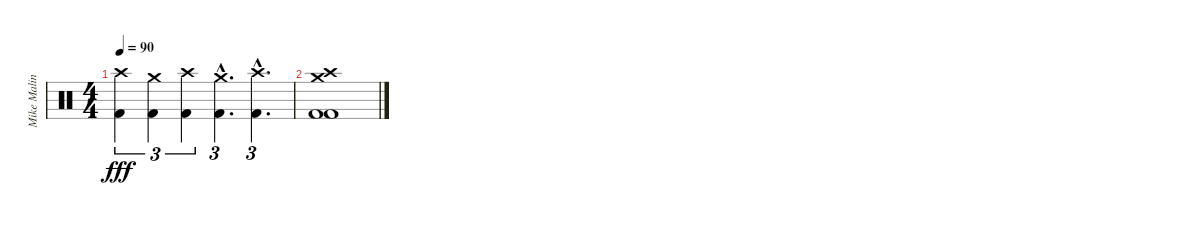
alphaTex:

\track ("Mike Malinin - Drums" "Mike Malin") {instrument percussion}
\staff {score}
\articulation defaults
\ts (4 4)
\tempo 90
\clef neutral
\ks c
("Crash high (hit)" "Kick (hit) 2").4{tu (3 2) dy fff} ("Crash medium (hit)" "Kick (hit) 2").4{tu (3 2)} ("Crash high (hit)" "Kick (hit) 2").4{tu (3 2)} ("Crash medium (hit)"{hac} "Kick (hit) 2"{hac}).4{d tu (3 2)} ("Crash high (hit)"{hac} "Kick (hit) 2"{hac}).4{d tu (3 2)} |
("Crash medium (hit)" "Crash high (hit)" "Kick (hit) 2" "Kick (hit) 2").1
